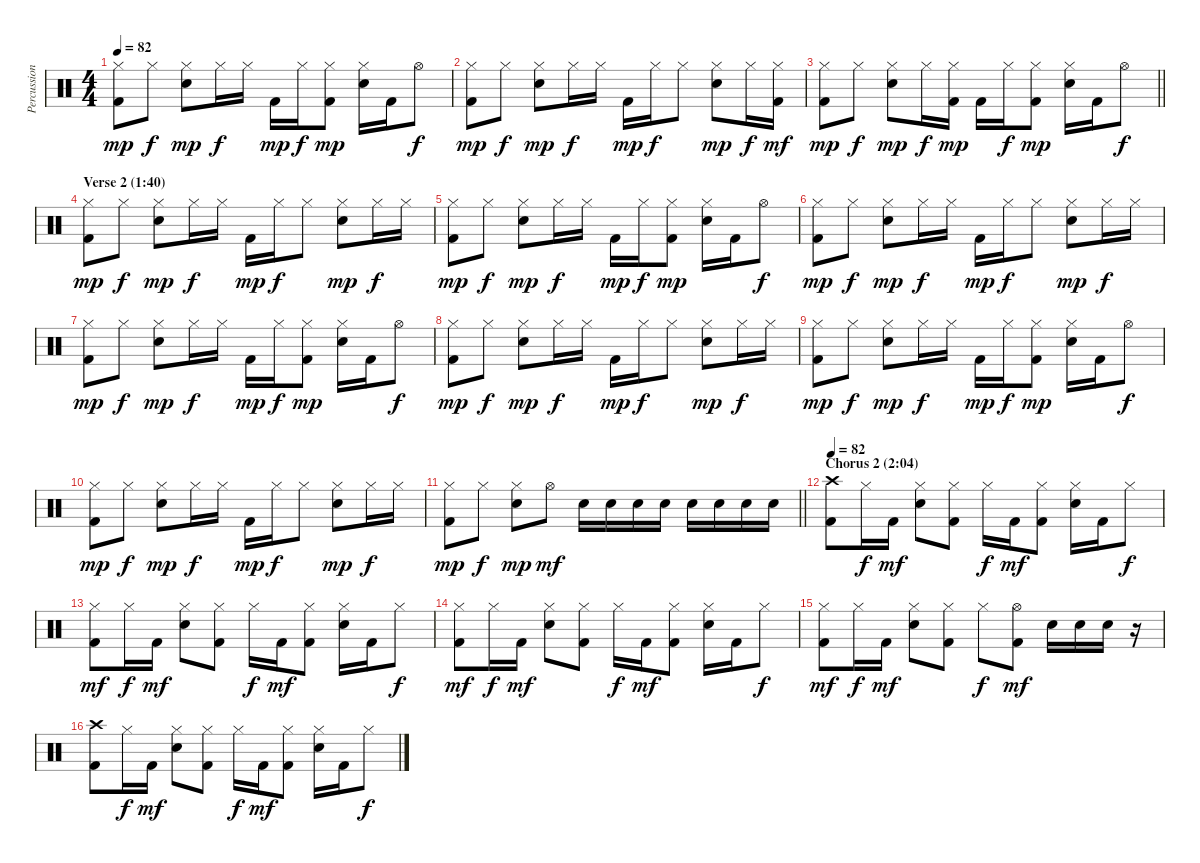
\track ("Percussion" "Percussion") {instrument percussion}
\staff {score}
\articulation defaults
\ts (4 4)
\tempo 82
\clef neutral
\ks c
("Hi-Hat (closed)" "Kick (hit) 2").8{dy mp} "Hi-Hat (closed)".8{dy f} ("Hi-Hat (closed)" "Electric Snare (hit)").8{dy mp} "Hi-Hat (closed)".16{dy f} "Hi-Hat (closed)".16 "Kick (hit) 2".16{dy mp} "Hi-Hat (closed)".16{dy f} ("Hi-Hat (closed)" "Kick (hit) 2").8{dy mp} ("Hi-Hat (closed)" "Electric Snare (hit)").16 "Kick (hit) 2".16 "Hi-Hat (open)".8{dy f} |
("Hi-Hat (closed)" "Kick (hit) 2").8{dy mp} "Hi-Hat (closed)".8{dy f} ("Hi-Hat (closed)" "Electric Snare (hit)").8{dy mp} "Hi-Hat (closed)".16{dy f} "Hi-Hat (closed)".16 "Kick (hit) 2".16{dy mp} "Hi-Hat (closed)".16{dy f} "Hi-Hat (closed)".8 ("Hi-Hat (closed)" "Electric Snare (hit)").8{dy mp} "Hi-Hat (closed)".16{dy f} ("Hi-Hat (closed)" "Kick (hit) 2").16{dy mf} |
\barLineRight lightlight
("Hi-Hat (closed)" "Kick (hit) 2").8{dy mp} "Hi-Hat (closed)".8{dy f} ("Hi-Hat (closed)" "Electric Snare (hit)").8{dy mp} "Hi-Hat (closed)".16{dy f} ("Hi-Hat (closed)" "Kick (hit) 2").16{dy mp} "Kick (hit) 2".16 "Hi-Hat (closed)".16{dy f} ("Hi-Hat (closed)" "Kick (hit) 2").8{dy mp} ("Hi-Hat (closed)" "Electric Snare (hit)").16 "Kick (hit) 2".16 "Hi-Hat (open)".8{dy f} |
\section ("" "Verse 2 (1:40)")
("Hi-Hat (closed)" "Kick (hit) 2").8{dy mp} "Hi-Hat (closed)".8{dy f} ("Hi-Hat (closed)" "Electric Snare (hit)").8{dy mp} "Hi-Hat (closed)".16{dy f} "Hi-Hat (closed)".16 "Kick (hit) 2".16{dy mp} "Hi-Hat (closed)".16{dy f} "Hi-Hat (closed)".8 ("Hi-Hat (closed)" "Electric Snare (hit)").8{dy mp} "Hi-Hat (closed)".16{dy f} "Hi-Hat (closed)".16 |
("Hi-Hat (closed)" "Kick (hit) 2").8{dy mp} "Hi-Hat (closed)".8{dy f} ("Hi-Hat (closed)" "Electric Snare (hit)").8{dy mp} "Hi-Hat (closed)".16{dy f} "Hi-Hat (closed)".16 "Kick (hit) 2".16{dy mp} "Hi-Hat (closed)".16{dy f} ("Hi-Hat (closed)" "Kick (hit) 2").8{dy mp} ("Hi-Hat (closed)" "Electric Snare (hit)").16 "Kick (hit) 2".16 "Hi-Hat (open)".8{dy f} |
("Hi-Hat (closed)" "Kick (hit) 2").8{dy mp} "Hi-Hat (closed)".8{dy f} ("Hi-Hat (closed)" "Electric Snare (hit)").8{dy mp} "Hi-Hat (closed)".16{dy f} "Hi-Hat (closed)".16 "Kick (hit) 2".16{dy mp} "Hi-Hat (closed)".16{dy f} "Hi-Hat (closed)".8 ("Hi-Hat (closed)" "Electric Snare (hit)").8{dy mp} "Hi-Hat (closed)".16{dy f} "Hi-Hat (closed)".16 |
("Hi-Hat (closed)" "Kick (hit) 2").8{dy mp} "Hi-Hat (closed)".8{dy f} ("Hi-Hat (closed)" "Electric Snare (hit)").8{dy mp} "Hi-Hat (closed)".16{dy f} "Hi-Hat (closed)".16 "Kick (hit) 2".16{dy mp} "Hi-Hat (closed)".16{dy f} ("Hi-Hat (closed)" "Kick (hit) 2").8{dy mp} ("Hi-Hat (closed)" "Electric Snare (hit)").16 "Kick (hit) 2".16 "Hi-Hat (open)".8{dy f} |
("Hi-Hat (closed)" "Kick (hit) 2").8{dy mp} "Hi-Hat (closed)".8{dy f} ("Hi-Hat (closed)" "Electric Snare (hit)").8{dy mp} "Hi-Hat (closed)".16{dy f} "Hi-Hat (closed)".16 "Kick (hit) 2".16{dy mp} "Hi-Hat (closed)".16{dy f} "Hi-Hat (closed)".8 ("Hi-Hat (closed)" "Electric Snare (hit)").8{dy mp} "Hi-Hat (closed)".16{dy f} "Hi-Hat (closed)".16 |
("Hi-Hat (closed)" "Kick (hit) 2").8{dy mp} "Hi-Hat (closed)".8{dy f} ("Hi-Hat (closed)" "Electric Snare (hit)").8{dy mp} "Hi-Hat (closed)".16{dy f} "Hi-Hat (closed)".16 "Kick (hit) 2".16{dy mp} "Hi-Hat (closed)".16{dy f} ("Hi-Hat (closed)" "Kick (hit) 2").8{dy mp} ("Hi-Hat (closed)" "Electric Snare (hit)").16 "Kick (hit) 2".16 "Hi-Hat (open)".8{dy f} |
("Hi-Hat (closed)" "Kick (hit) 2").8{dy mp} "Hi-Hat (closed)".8{dy f} ("Hi-Hat (closed)" "Electric Snare (hit)").8{dy mp} "Hi-Hat (closed)".16{dy f} "Hi-Hat (closed)".16 "Kick (hit) 2".16{dy mp} "Hi-Hat (closed)".16{dy f} "Hi-Hat (closed)".8 ("Hi-Hat (closed)" "Electric Snare (hit)").8{dy mp} "Hi-Hat (closed)".16{dy f} "Hi-Hat (closed)".16 |
\barLineRight lightlight
("Hi-Hat (closed)" "Kick (hit) 2").8{dy mp} "Hi-Hat (closed)".8{dy f} ("Hi-Hat (closed)" "Electric Snare (hit)").8{dy mp} "Hi-Hat (open)".8{dy mf} "Electric Snare (hit)".16 "Electric Snare (hit)".16 "Electric Snare (hit)".16 "Electric Snare (hit)".16 "Snare (hit) 2".16 "Snare (hit) 2".16 "Snare (hit) 2".16 "Snare (hit) 2".16 |
\section ("" "Chorus 2 (2:04)")
\tempo 82
("Crash high (hit)" "Kick (hit) 2").8 "Hi-Hat (closed)".16{dy f} "Kick (hit) 2".16{dy mf} ("Hi-Hat (closed)" "Electric Snare (hit)").8 ("Hi-Hat (closed)" "Kick (hit) 2").8 "Hi-Hat (closed)".16{dy f} "Kick (hit) 2".16{dy mf} ("Hi-Hat (closed)" "Kick (hit) 2").8 ("Hi-Hat (closed)" "Electric Snare (hit)").16 "Kick (hit) 2".16 "Hi-Hat (closed)".8{dy f} |
("Hi-Hat (closed)" "Kick (hit) 2").8{dy mf} "Hi-Hat (closed)".16{dy f} "Kick (hit) 2".16{dy mf} ("Hi-Hat (closed)" "Electric Snare (hit)").8 ("Hi-Hat (closed)" "Kick (hit) 2").8 "Hi-Hat (closed)".16{dy f} "Kick (hit) 2".16{dy mf} ("Hi-Hat (closed)" "Kick (hit) 2").8 ("Hi-Hat (closed)" "Electric Snare (hit)").16 "Kick (hit) 2".16 "Hi-Hat (closed)".8{dy f} |
("Hi-Hat (closed)" "Kick (hit) 2").8{dy mf} "Hi-Hat (closed)".16{dy f} "Kick (hit) 2".16{dy mf} ("Hi-Hat (closed)" "Electric Snare (hit)").8 ("Hi-Hat (closed)" "Kick (hit) 2").8 "Hi-Hat (closed)".16{dy f} "Kick (hit) 2".16{dy mf} ("Hi-Hat (closed)" "Kick (hit) 2").8 ("Hi-Hat (closed)" "Electric Snare (hit)").16 "Kick (hit) 2".16 "Hi-Hat (closed)".8{dy f} |
("Hi-Hat (closed)" "Kick (hit) 2").8{dy mf} "Hi-Hat (closed)".16{dy f} "Kick (hit) 2".16{dy mf} ("Hi-Hat (closed)" "Electric Snare (hit)").8 ("Hi-Hat (closed)" "Kick (hit) 2").8 "Hi-Hat (closed)".8{dy f} ("Hi-Hat (open)" "Kick (hit) 2").8{dy mf} "Electric Snare (hit)".16 "Electric Snare (hit)".16 "Electric Snare (hit)".16 r.16 |
("Crash high (hit)" "Kick (hit) 2").8 "Hi-Hat (closed)".16{dy f} "Kick (hit) 2".16{dy mf} ("Hi-Hat (closed)" "Electric Snare (hit)").8 ("Hi-Hat (closed)" "Kick (hit) 2").8 "Hi-Hat (closed)".16{dy f} "Kick (hit) 2".16{dy mf} ("Hi-Hat (closed)" "Kick (hit) 2").8 ("Hi-Hat (closed)" "Electric Snare (hit)").16 "Kick (hit) 2".16 "Hi-Hat (closed)".8{dy f}
